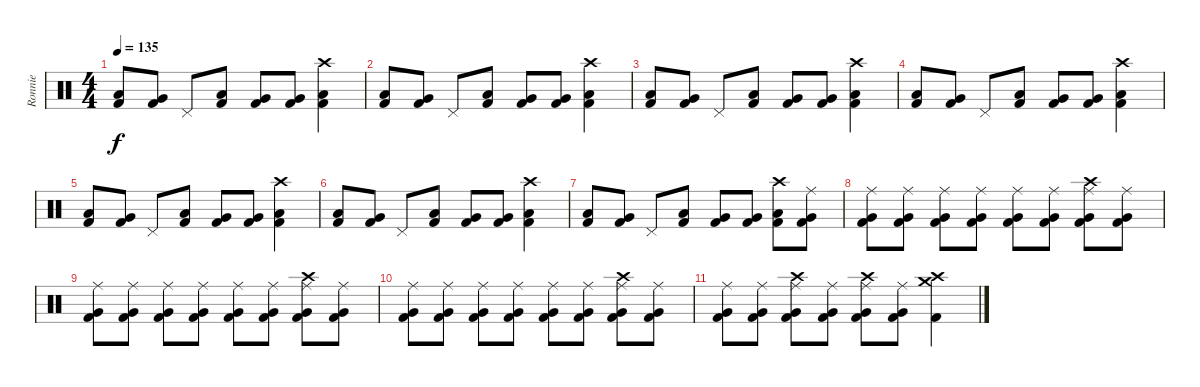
\track ("Ronnie" "Ronnie") {instrument percussion}
\staff {score}
\articulation defaults
\ts (4 4)
\tempo 135
\clef neutral
\ks c
("Kick (hit) 2" "Low Tom (hit)").8{dy f} ("Kick (hit) 2" "Very Low Tom (hit)").8 "Pedal Hi-Hat (hit)".8 ("Kick (hit) 2" "Low Tom (hit)").8 ("Kick (hit) 2" "Very Low Tom (hit)").8 ("Kick (hit) 2" "Very Low Tom (hit)").8 ("Crash high (hit)" "Kick (hit) 2" "Low Tom (hit)").4 |
("Kick (hit) 2" "Low Tom (hit)").8 ("Kick (hit) 2" "Very Low Tom (hit)").8 "Pedal Hi-Hat (hit)".8 ("Kick (hit) 2" "Low Tom (hit)").8 ("Kick (hit) 2" "Very Low Tom (hit)").8 ("Kick (hit) 2" "Very Low Tom (hit)").8 ("Crash high (hit)" "Kick (hit) 2" "Low Tom (hit)").4 |
("Kick (hit) 2" "Low Tom (hit)").8 ("Kick (hit) 2" "Very Low Tom (hit)").8 "Pedal Hi-Hat (hit)".8 ("Kick (hit) 2" "Low Tom (hit)").8 ("Kick (hit) 2" "Very Low Tom (hit)").8 ("Kick (hit) 2" "Very Low Tom (hit)").8 ("Crash high (hit)" "Kick (hit) 2" "Low Tom (hit)").4 |
("Kick (hit) 2" "Low Tom (hit)").8 ("Kick (hit) 2" "Very Low Tom (hit)").8 "Pedal Hi-Hat (hit)".8 ("Kick (hit) 2" "Low Tom (hit)").8 ("Kick (hit) 2" "Very Low Tom (hit)").8 ("Kick (hit) 2" "Very Low Tom (hit)").8 ("Crash high (hit)" "Kick (hit) 2" "Low Tom (hit)").4 |
("Kick (hit) 2" "Low Tom (hit)").8 ("Kick (hit) 2" "Very Low Tom (hit)").8 "Pedal Hi-Hat (hit)".8 ("Kick (hit) 2" "Low Tom (hit)").8 ("Kick (hit) 2" "Very Low Tom (hit)").8 ("Kick (hit) 2" "Very Low Tom (hit)").8 ("Crash high (hit)" "Kick (hit) 2" "Low Tom (hit)").4 |
("Kick (hit) 2" "Low Tom (hit)").8 ("Kick (hit) 2" "Very Low Tom (hit)").8 "Pedal Hi-Hat (hit)".8 ("Kick (hit) 2" "Low Tom (hit)").8 ("Kick (hit) 2" "Very Low Tom (hit)").8 ("Kick (hit) 2" "Very Low Tom (hit)").8 ("Crash high (hit)" "Kick (hit) 2" "Low Tom (hit)").4 |
("Kick (hit) 2" "Low Tom (hit)").8 ("Kick (hit) 2" "Very Low Tom (hit)").8 "Pedal Hi-Hat (hit)".8 ("Kick (hit) 2" "Low Tom (hit)").8 ("Kick (hit) 2" "Very Low Tom (hit)").8 ("Kick (hit) 2" "Very Low Tom (hit)").8 ("Crash high (hit)" "Kick (hit) 2" "Low Tom (hit)").8 ("Very Low Tom (hit)" "Kick (hit) 2" "Ride (middle)").8 |
("Very Low Tom (hit)" "Kick (hit) 2" "Ride (middle)").8 ("Very Low Tom (hit)" "Kick (hit) 2" "Ride (middle)").8 ("Very Low Tom (hit)" "Kick (hit) 2" "Ride (middle)").8 ("Very Low Tom (hit)" "Kick (hit) 2" "Ride (middle)").8 ("Very Low Tom (hit)" "Kick (hit) 2" "Ride (middle)").8 ("Very Low Tom (hit)" "Kick (hit) 2" "Ride (middle)").8 ("Very Low Tom (hit)" "Kick (hit) 2" "Ride (middle)" "Crash high (hit)").8 ("Very Low Tom (hit)" "Kick (hit) 2" "Ride (middle)").8 |
("Very Low Tom (hit)" "Kick (hit) 2" "Ride (middle)").8 ("Very Low Tom (hit)" "Kick (hit) 2" "Ride (middle)").8 ("Very Low Tom (hit)" "Kick (hit) 2" "Ride (middle)").8 ("Very Low Tom (hit)" "Kick (hit) 2" "Ride (middle)").8 ("Very Low Tom (hit)" "Kick (hit) 2" "Ride (middle)").8 ("Very Low Tom (hit)" "Kick (hit) 2" "Ride (middle)").8 ("Very Low Tom (hit)" "Kick (hit) 2" "Ride (middle)" "Crash high (hit)").8 ("Very Low Tom (hit)" "Kick (hit) 2" "Ride (middle)").8 |
("Very Low Tom (hit)" "Kick (hit) 2" "Ride (middle)").8 ("Very Low Tom (hit)" "Kick (hit) 2" "Ride (middle)").8 ("Very Low Tom (hit)" "Kick (hit) 2" "Ride (middle)").8 ("Very Low Tom (hit)" "Kick (hit) 2" "Ride (middle)").8 ("Very Low Tom (hit)" "Kick (hit) 2" "Ride (middle)").8 ("Very Low Tom (hit)" "Kick (hit) 2" "Ride (middle)").8 ("Very Low Tom (hit)" "Kick (hit) 2" "Ride (middle)" "Crash high (hit)").8 ("Very Low Tom (hit)" "Kick (hit) 2" "Ride (middle)").8 |
("Very Low Tom (hit)" "Kick (hit) 2" "Ride (middle)").8 ("Very Low Tom (hit)" "Kick (hit) 2" "Ride (middle)").8 ("Very Low Tom (hit)" "Kick (hit) 2" "Ride (middle)" "Crash high (hit)").8 ("Very Low Tom (hit)" "Kick (hit) 2" "Ride (middle)").8 ("Very Low Tom (hit)" "Kick (hit) 2" "Ride (middle)" "Crash high (hit)").8 ("Very Low Tom (hit)" "Kick (hit) 2" "Ride (middle)").8 ("Crash high (hit)" "Kick (hit) 2" "Crash medium (hit)").4
